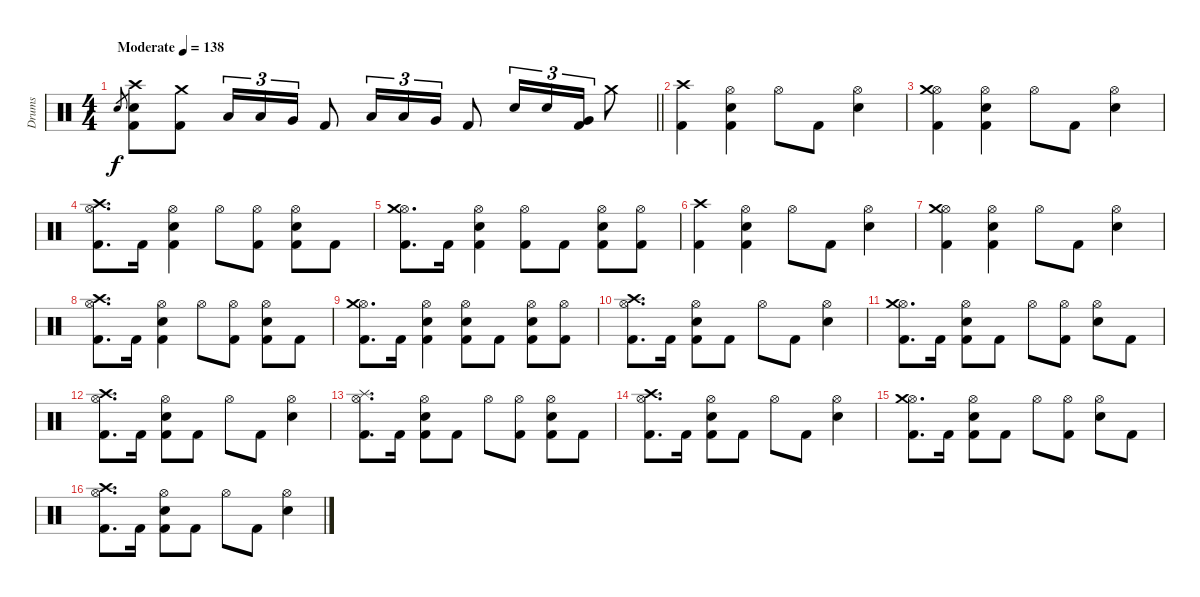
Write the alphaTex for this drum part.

\track ("Drums" "Drums") {instrument percussion}
\staff {score}
\articulation defaults
\ts (4 4)
\section ("" "")
\tempo (138 "Moderate")
\clef neutral
\barLineRight lightlight
\ks c "Snare (hit) 2".8{gr dy f}
("Snare (hit) 2" "Crash high (hit)" "Kick (hit) 2").8 ("Crash medium (hit)" "Kick (hit) 2").8 "Low Tom (hit)".16{tu (3 2)} "Low Tom (hit)".16{tu (3 2)} "Very Low Tom (hit)".16{tu (3 2)} "Kick (hit) 2".8 "Low Tom (hit)".16{tu (3 2)} "Low Tom (hit)".16{tu (3 2)} "Very Low Tom (hit)".16{tu (3 2)} "Kick (hit) 2".8 "Snare (hit) 2".16{tu (3 2)} "Snare (hit) 2".16{tu (3 2)} ("Very Low Tom (hit)" "Kick (hit) 2").16{tu (3 2)} "Crash medium (hit)".8 |
("Crash high (hit)" "Kick (hit) 2").4 ("Hi-Hat (open)" "Snare (hit) 2" "Kick (hit) 2").4 "Hi-Hat (open)".8 "Kick (hit) 2".8 ("Hi-Hat (open)" "Snare (hit) 2").4 |
("Hi-Hat (open)" "Crash medium (hit)" "Kick (hit) 2").4 ("Hi-Hat (open)" "Snare (hit) 2" "Kick (hit) 2").4 "Hi-Hat (open)".8 "Kick (hit) 2".8 ("Hi-Hat (open)" "Snare (hit) 2").4 |
("Hi-Hat (open)" "Crash high (hit)" "Kick (hit) 2").8{d} "Kick (hit) 2".16 ("Hi-Hat (open)" "Snare (hit) 2" "Kick (hit) 2").4 "Hi-Hat (open)".8 ("Hi-Hat (open)" "Kick (hit) 2").8 ("Hi-Hat (open)" "Snare (hit) 2" "Kick (hit) 2").8 "Kick (hit) 2".8 |
("Hi-Hat (open)" "Crash medium (hit)" "Kick (hit) 2").8{d} "Kick (hit) 2".16 ("Hi-Hat (open)" "Snare (hit) 2" "Kick (hit) 2").4 ("Hi-Hat (open)" "Kick (hit) 2").8 "Kick (hit) 2".8 ("Hi-Hat (open)" "Snare (hit) 2" "Kick (hit) 2").8 ("Hi-Hat (open)" "Kick (hit) 2").8 |
("Crash high (hit)" "Kick (hit) 2").4 ("Hi-Hat (open)" "Snare (hit) 2" "Kick (hit) 2").4 "Hi-Hat (open)".8 "Kick (hit) 2".8 ("Hi-Hat (open)" "Snare (hit) 2").4 |
("Hi-Hat (open)" "Crash medium (hit)" "Kick (hit) 2").4 ("Hi-Hat (open)" "Snare (hit) 2" "Kick (hit) 2").4 "Hi-Hat (open)".8 "Kick (hit) 2".8 ("Hi-Hat (open)" "Snare (hit) 2").4 |
("Hi-Hat (open)" "Crash high (hit)" "Kick (hit) 2").8{d} "Kick (hit) 2".16 ("Hi-Hat (open)" "Snare (hit) 2" "Kick (hit) 2").4 "Hi-Hat (open)".8 ("Hi-Hat (open)" "Kick (hit) 2").8 ("Hi-Hat (open)" "Snare (hit) 2" "Kick (hit) 2").8 "Kick (hit) 2".8 |
("Hi-Hat (open)" "Crash medium (hit)" "Kick (hit) 2").8{d} "Kick (hit) 2".16 ("Hi-Hat (open)" "Snare (hit) 2" "Kick (hit) 2").4 ("Hi-Hat (open)" "Snare (hit) 2" "Kick (hit) 2").8 "Kick (hit) 2".8 ("Hi-Hat (open)" "Snare (hit) 2" "Kick (hit) 2").8 ("Hi-Hat (open)" "Kick (hit) 2").8 |
("Hi-Hat (open)" "Crash high (hit)" "Kick (hit) 2").8{d} "Kick (hit) 2".16 ("Hi-Hat (open)" "Snare (hit) 2" "Kick (hit) 2").8 "Kick (hit) 2".8 "Hi-Hat (open)".8 "Kick (hit) 2".8 ("Hi-Hat (open)" "Snare (hit) 2").4 |
("Hi-Hat (open)" "Crash medium (hit)" "Kick (hit) 2").8{d} "Kick (hit) 2".16 ("Hi-Hat (open)" "Snare (hit) 2" "Kick (hit) 2").8 "Kick (hit) 2".8 "Hi-Hat (open)".8 ("Hi-Hat (open)" "Kick (hit) 2").8 ("Hi-Hat (open)" "Snare (hit) 2").8 "Kick (hit) 2".8 |
("Hi-Hat (open)" "Crash high (hit)" "Kick (hit) 2").8{d} "Kick (hit) 2".16 ("Hi-Hat (open)" "Snare (hit) 2" "Kick (hit) 2").8 "Kick (hit) 2".8 "Hi-Hat (open)".8 "Kick (hit) 2".8 ("Hi-Hat (open)" "Snare (hit) 2").4 |
("Hi-Hat (open)" "Splash (hit)" "Kick (hit) 2").8{d} "Kick (hit) 2".16 ("Hi-Hat (open)" "Snare (hit) 2" "Kick (hit) 2").8 "Kick (hit) 2".8 "Hi-Hat (open)".8 ("Hi-Hat (open)" "Kick (hit) 2").8 ("Hi-Hat (open)" "Snare (hit) 2" "Kick (hit) 2").8 "Kick (hit) 2".8 |
("Hi-Hat (open)" "Crash high (hit)" "Kick (hit) 2").8{d} "Kick (hit) 2".16 ("Hi-Hat (open)" "Snare (hit) 2" "Kick (hit) 2").8 "Kick (hit) 2".8 "Hi-Hat (open)".8 "Kick (hit) 2".8 ("Hi-Hat (open)" "Snare (hit) 2").4 |
("Hi-Hat (open)" "Crash medium (hit)" "Kick (hit) 2").8{d} "Kick (hit) 2".16 ("Hi-Hat (open)" "Snare (hit) 2" "Kick (hit) 2").8 "Kick (hit) 2".8 "Hi-Hat (open)".8 ("Hi-Hat (open)" "Kick (hit) 2").8 ("Hi-Hat (open)" "Snare (hit) 2").8 "Kick (hit) 2".8 |
("Hi-Hat (open)" "Crash high (hit)" "Kick (hit) 2").8{d} "Kick (hit) 2".16 ("Hi-Hat (open)" "Snare (hit) 2" "Kick (hit) 2").8 "Kick (hit) 2".8 "Hi-Hat (open)".8 "Kick (hit) 2".8 ("Hi-Hat (open)" "Snare (hit) 2").4
